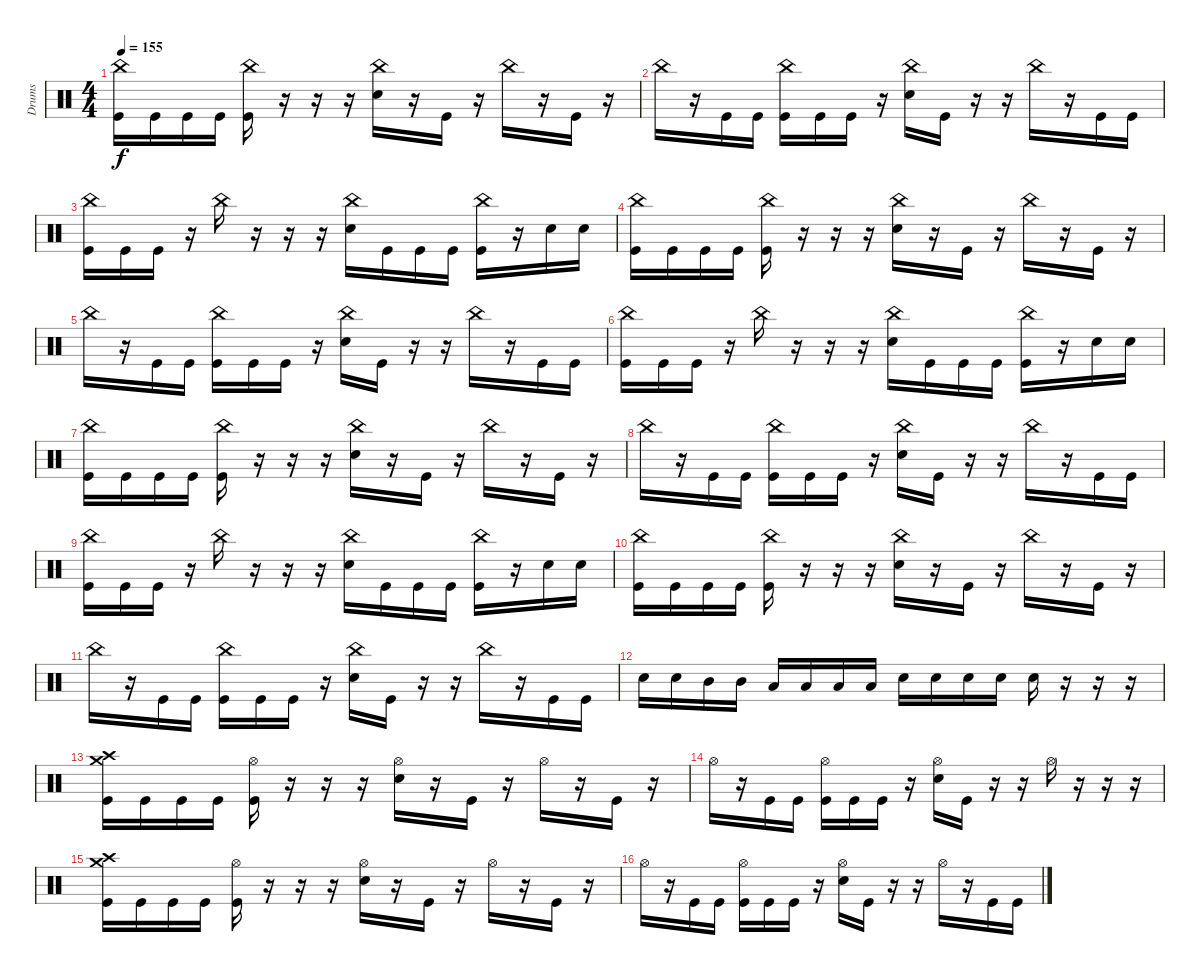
\track ("Drums" "Drums") {instrument percussion}
\staff {score}
\articulation defaults
\ts (4 4)
\tempo 155
\clef neutral
\ks c
("China (hit)" "Kick (hit)").16{dy f} "Kick (hit)".16 "Kick (hit)".16 "Kick (hit)".16 ("China (hit)" "Kick (hit)").16 r.16 r.16 r.16 ("China (hit)" "Electric Snare (hit)").16 r.16 "Kick (hit)".16 r.16 "China (hit)".16 r.16 "Kick (hit)".16 r.16 |
"China (hit)".16 r.16 "Kick (hit)".16 "Kick (hit)".16 ("China (hit)" "Kick (hit)").16 "Kick (hit)".16 "Kick (hit)".16 r.16 ("China (hit)" "Electric Snare (hit)").16 "Kick (hit)".16 r.16 r.16 "China (hit)".16 r.16 "Kick (hit)".16 "Kick (hit)".16 |
("China (hit)" "Kick (hit)").16 "Kick (hit)".16 "Kick (hit)".16 r.16 "China (hit)".16 r.16 r.16 r.16 ("China (hit)" "Electric Snare (hit)").16 "Kick (hit)".16 "Kick (hit)".16 "Kick (hit)".16 ("China (hit)" "Kick (hit)").16 r.16 "Electric Snare (hit)".16 "Electric Snare (hit)".16 |
("China (hit)" "Kick (hit)").16 "Kick (hit)".16 "Kick (hit)".16 "Kick (hit)".16 ("China (hit)" "Kick (hit)").16 r.16 r.16 r.16 ("China (hit)" "Electric Snare (hit)").16 r.16 "Kick (hit)".16 r.16 "China (hit)".16 r.16 "Kick (hit)".16 r.16 |
"China (hit)".16 r.16 "Kick (hit)".16 "Kick (hit)".16 ("China (hit)" "Kick (hit)").16 "Kick (hit)".16 "Kick (hit)".16 r.16 ("China (hit)" "Electric Snare (hit)").16 "Kick (hit)".16 r.16 r.16 "China (hit)".16 r.16 "Kick (hit)".16 "Kick (hit)".16 |
("China (hit)" "Kick (hit)").16 "Kick (hit)".16 "Kick (hit)".16 r.16 "China (hit)".16 r.16 r.16 r.16 ("China (hit)" "Electric Snare (hit)").16 "Kick (hit)".16 "Kick (hit)".16 "Kick (hit)".16 ("China (hit)" "Kick (hit)").16 r.16 "Electric Snare (hit)".16 "Electric Snare (hit)".16 |
("China (hit)" "Kick (hit)").16 "Kick (hit)".16 "Kick (hit)".16 "Kick (hit)".16 ("China (hit)" "Kick (hit)").16 r.16 r.16 r.16 ("China (hit)" "Electric Snare (hit)").16 r.16 "Kick (hit)".16 r.16 "China (hit)".16 r.16 "Kick (hit)".16 r.16 |
"China (hit)".16 r.16 "Kick (hit)".16 "Kick (hit)".16 ("China (hit)" "Kick (hit)").16 "Kick (hit)".16 "Kick (hit)".16 r.16 ("China (hit)" "Electric Snare (hit)").16 "Kick (hit)".16 r.16 r.16 "China (hit)".16 r.16 "Kick (hit)".16 "Kick (hit)".16 |
("China (hit)" "Kick (hit)").16 "Kick (hit)".16 "Kick (hit)".16 r.16 "China (hit)".16 r.16 r.16 r.16 ("China (hit)" "Electric Snare (hit)").16 "Kick (hit)".16 "Kick (hit)".16 "Kick (hit)".16 ("China (hit)" "Kick (hit)").16 r.16 "Electric Snare (hit)".16 "Electric Snare (hit)".16 |
("China (hit)" "Kick (hit)").16 "Kick (hit)".16 "Kick (hit)".16 "Kick (hit)".16 ("China (hit)" "Kick (hit)").16 r.16 r.16 r.16 ("China (hit)" "Electric Snare (hit)").16 r.16 "Kick (hit)".16 r.16 "China (hit)".16 r.16 "Kick (hit)".16 r.16 |
"China (hit)".16 r.16 "Kick (hit)".16 "Kick (hit)".16 ("China (hit)" "Kick (hit)").16 "Kick (hit)".16 "Kick (hit)".16 r.16 ("China (hit)" "Electric Snare (hit)").16 "Kick (hit)".16 r.16 r.16 "China (hit)".16 r.16 "Kick (hit)".16 "Kick (hit)".16 |
"Electric Snare (hit)".16 "Electric Snare (hit)".16 "Mid Tom (hit)".16 "Mid Tom (hit)".16 "Low Tom (hit)".16 "Low Tom (hit)".16 "Low Tom (hit)".16 "Low Tom (hit)".16 "Electric Snare (hit)".16 "Electric Snare (hit)".16 "Electric Snare (hit)".16 "Electric Snare (hit)".16 "Electric Snare (hit)".16 r.16 r.16 r.16 |
("Crash high (hit)" "Crash medium (hit)" "Kick (hit)").16 "Kick (hit)".16 "Kick (hit)".16 "Kick (hit)".16 ("Hi-Hat (open)" "Kick (hit)").16 r.16 r.16 r.16 ("Hi-Hat (open)" "Electric Snare (hit)").16 r.16 "Kick (hit)".16 r.16 "Hi-Hat (open)".16 r.16 "Kick (hit)".16 r.16 |
"Hi-Hat (open)".16 r.16 "Kick (hit)".16 "Kick (hit)".16 ("Hi-Hat (open)" "Kick (hit)").16 "Kick (hit)".16 "Kick (hit)".16 r.16 ("Hi-Hat (open)" "Electric Snare (hit)").16 "Kick (hit)".16 r.16 r.16 "Hi-Hat (open)".16 r.16 r.16 r.16 |
("Crash high (hit)" "Crash medium (hit)" "Kick (hit)").16 "Kick (hit)".16 "Kick (hit)".16 "Kick (hit)".16 ("Hi-Hat (open)" "Kick (hit)").16 r.16 r.16 r.16 ("Hi-Hat (open)" "Electric Snare (hit)").16 r.16 "Kick (hit)".16 r.16 "Hi-Hat (open)".16 r.16 "Kick (hit)".16 r.16 |
"Hi-Hat (open)".16 r.16 "Kick (hit)".16 "Kick (hit)".16 ("Hi-Hat (open)" "Kick (hit)").16 "Kick (hit)".16 "Kick (hit)".16 r.16 ("Hi-Hat (open)" "Electric Snare (hit)").16 "Kick (hit)".16 r.16 r.16 "Hi-Hat (open)".16 r.16 "Kick (hit)".16 "Kick (hit)".16
